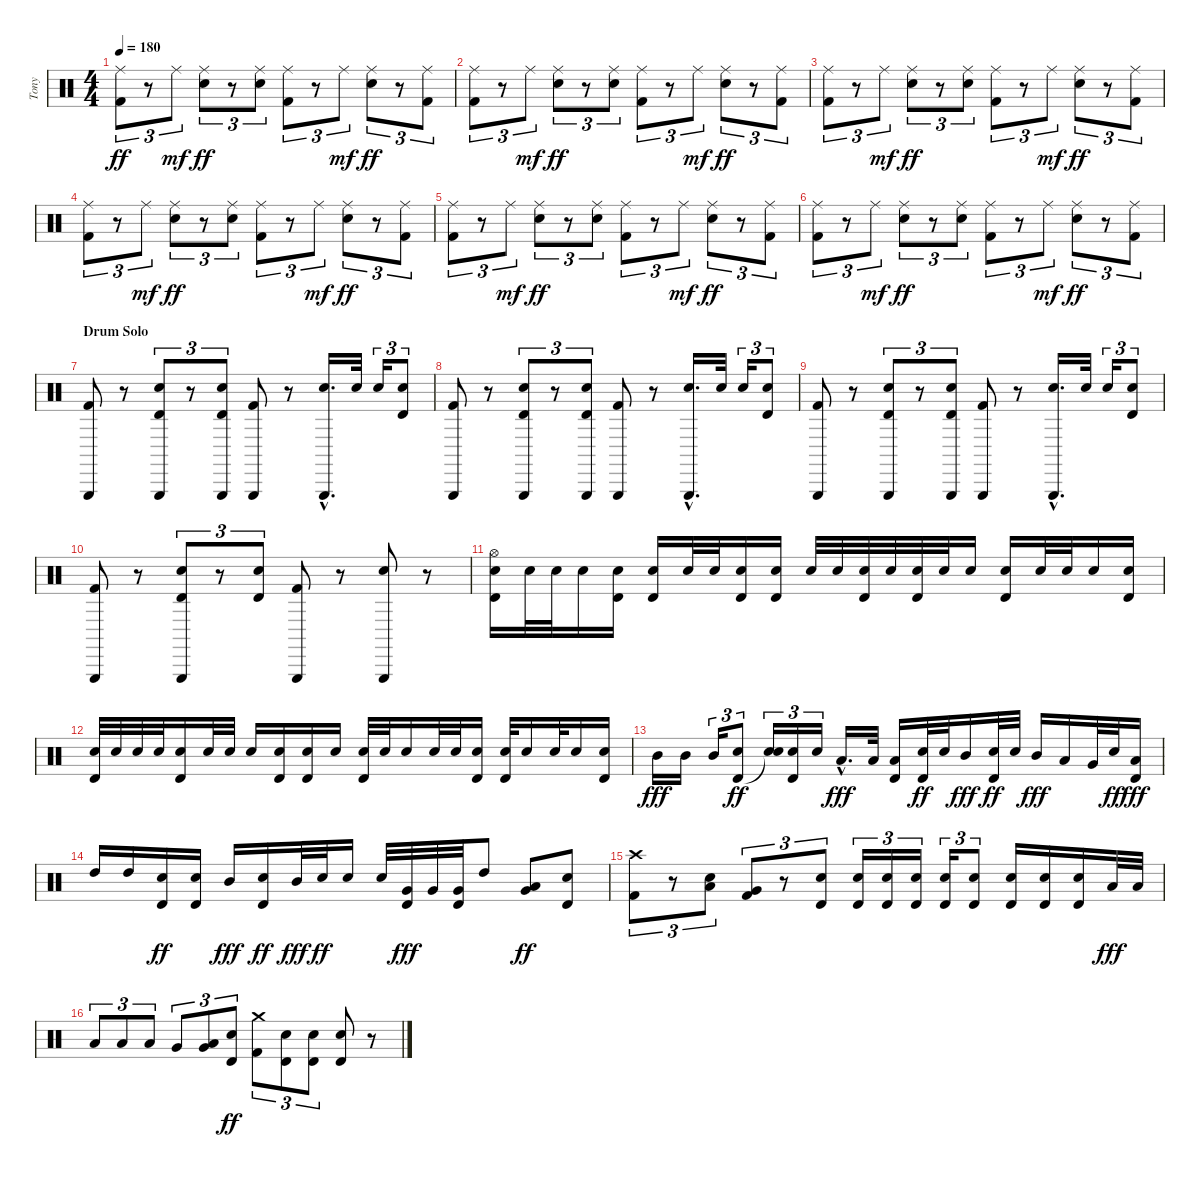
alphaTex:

\track ("Tony" "Tony") {instrument percussion}
\staff {score}
\articulation defaults
\ts (4 4)
\tempo 180
\clef neutral
\ks c
("Ride (middle)" "Kick (hit) 2").8{tu (3 2) dy ff} r.8{tu (3 2)} "Ride (middle)".8{tu (3 2) dy mf} ("Ride (middle)" "Electric Snare (hit)").8{tu (3 2) dy ff} r.8{tu (3 2)} ("Ride (middle)" "Electric Snare (hit)").8{tu (3 2)} ("Ride (middle)" "Kick (hit) 2").8{tu (3 2)} r.8{tu (3 2)} "Ride (middle)".8{tu (3 2) dy mf} ("Ride (middle)" "Electric Snare (hit)").8{tu (3 2) dy ff} r.8{tu (3 2)} ("Ride (middle)" "Kick (hit) 2").8{tu (3 2)} |
("Ride (middle)" "Kick (hit) 2").8{tu (3 2)} r.8{tu (3 2)} "Ride (middle)".8{tu (3 2) dy mf} ("Ride (middle)" "Electric Snare (hit)").8{tu (3 2) dy ff} r.8{tu (3 2)} ("Ride (middle)" "Electric Snare (hit)").8{tu (3 2)} ("Ride (middle)" "Kick (hit) 2").8{tu (3 2)} r.8{tu (3 2)} "Ride (middle)".8{tu (3 2) dy mf} ("Ride (middle)" "Electric Snare (hit)").8{tu (3 2) dy ff} r.8{tu (3 2)} ("Ride (middle)" "Kick (hit) 2").8{tu (3 2)} |
("Ride (middle)" "Kick (hit) 2").8{tu (3 2)} r.8{tu (3 2)} "Ride (middle)".8{tu (3 2) dy mf} ("Ride (middle)" "Electric Snare (hit)").8{tu (3 2) dy ff} r.8{tu (3 2)} ("Ride (middle)" "Electric Snare (hit)").8{tu (3 2)} ("Ride (middle)" "Kick (hit) 2").8{tu (3 2)} r.8{tu (3 2)} "Ride (middle)".8{tu (3 2) dy mf} ("Ride (middle)" "Electric Snare (hit)").8{tu (3 2) dy ff} r.8{tu (3 2)} ("Ride (middle)" "Kick (hit) 2").8{tu (3 2)} |
("Ride (middle)" "Kick (hit) 2").8{tu (3 2)} r.8{tu (3 2)} "Ride (middle)".8{tu (3 2) dy mf} ("Ride (middle)" "Electric Snare (hit)").8{tu (3 2) dy ff} r.8{tu (3 2)} ("Ride (middle)" "Electric Snare (hit)").8{tu (3 2)} ("Ride (middle)" "Kick (hit) 2").8{tu (3 2)} r.8{tu (3 2)} "Ride (middle)".8{tu (3 2) dy mf} ("Ride (middle)" "Electric Snare (hit)").8{tu (3 2) dy ff} r.8{tu (3 2)} ("Ride (middle)" "Kick (hit) 2").8{tu (3 2)} |
("Ride (middle)" "Kick (hit) 2").8{tu (3 2)} r.8{tu (3 2)} "Ride (middle)".8{tu (3 2) dy mf} ("Ride (middle)" "Electric Snare (hit)").8{tu (3 2) dy ff} r.8{tu (3 2)} ("Ride (middle)" "Electric Snare (hit)").8{tu (3 2)} ("Ride (middle)" "Kick (hit) 2").8{tu (3 2)} r.8{tu (3 2)} "Ride (middle)".8{tu (3 2) dy mf} ("Ride (middle)" "Electric Snare (hit)").8{tu (3 2) dy ff} r.8{tu (3 2)} ("Ride (middle)" "Kick (hit) 2").8{tu (3 2)} |
("Ride (middle)" "Kick (hit) 2").8{tu (3 2)} r.8{tu (3 2)} "Ride (middle)".8{tu (3 2) dy mf} ("Ride (middle)" "Electric Snare (hit)").8{tu (3 2) dy ff} r.8{tu (3 2)} ("Ride (middle)" "Electric Snare (hit)").8{tu (3 2)} ("Ride (middle)" "Kick (hit) 2").8{tu (3 2)} r.8{tu (3 2)} "Ride (middle)".8{tu (3 2) dy mf} ("Ride (middle)" "Electric Snare (hit)").8{tu (3 2) dy ff} r.8{tu (3 2)} ("Ride (middle)" "Kick (hit) 2").8{tu (3 2)} |
\section ("" "Drum Solo")
("Triangle (hit)" "Kick (hit) 2").8 r.8 ("Triangle (hit)" "Timbale high (hit)" "Electric Snare (hit)").8{tu (3 2)} r.8{tu (3 2)} ("Triangle (hit)" "Timbale high (hit)" "Electric Snare (hit)").8{tu (3 2)} ("Triangle (hit)" "Kick (hit) 2").8 r.8 ("Triangle (hit)"{hac} "Electric Snare (hit)"{hac}).16{d} "Electric Snare (hit)".32 "Electric Snare (hit)".16{tu (3 2)} ("Timbale high (hit)" "Electric Snare (hit)").8{tu (3 2)} |
("Triangle (hit)" "Kick (hit) 2").8 r.8 ("Triangle (hit)" "Timbale high (hit)" "Electric Snare (hit)").8{tu (3 2)} r.8{tu (3 2)} ("Triangle (hit)" "Timbale high (hit)" "Electric Snare (hit)").8{tu (3 2)} ("Triangle (hit)" "Kick (hit) 2").8 r.8 ("Triangle (hit)"{hac} "Electric Snare (hit)"{hac}).16{d} "Electric Snare (hit)".32 "Electric Snare (hit)".16{tu (3 2)} ("Timbale high (hit)" "Electric Snare (hit)").8{tu (3 2)} |
("Triangle (hit)" "Kick (hit) 2").8 r.8 ("Triangle (hit)" "Timbale high (hit)" "Electric Snare (hit)").8{tu (3 2)} r.8{tu (3 2)} ("Triangle (hit)" "Timbale high (hit)" "Electric Snare (hit)").8{tu (3 2)} ("Triangle (hit)" "Kick (hit) 2").8 r.8 ("Triangle (hit)"{hac} "Electric Snare (hit)"{hac}).16{d} "Electric Snare (hit)".32 "Electric Snare (hit)".16{tu (3 2)} ("Timbale high (hit)" "Electric Snare (hit)").8{tu (3 2)} |
("Triangle (hit)" "Kick (hit) 2").8 r.8 ("Triangle (hit)" "Timbale high (hit)" "Electric Snare (hit)").8{tu (3 2)} r.8{tu (3 2)} ("Timbale high (hit)" "Electric Snare (hit)").8{tu (3 2)} ("Triangle (hit)" "Kick (hit) 2").8 r.8 ("Triangle (hit)" "Electric Snare (hit)").8 r.8 |
("Timbale high (hit)" "Hi-Hat (open)" "Electric Snare (hit)").16 "Electric Snare (hit)".32 "Electric Snare (hit)".32 "Electric Snare (hit)".16 ("Timbale high (hit)" "Electric Snare (hit)").16 ("Timbale high (hit)" "Electric Snare (hit)").16 "Electric Snare (hit)".32 "Electric Snare (hit)".32 ("Timbale high (hit)" "Electric Snare (hit)").16 ("Timbale high (hit)" "Electric Snare (hit)").16 "Electric Snare (hit)".32 "Electric Snare (hit)".32 ("Timbale high (hit)" "Electric Snare (hit)").32 "Electric Snare (hit)".32 ("Timbale high (hit)" "Electric Snare (hit)").32 "Electric Snare (hit)".32 "Electric Snare (hit)".16 ("Timbale high (hit)" "Electric Snare (hit)").16 "Electric Snare (hit)".32 "Electric Snare (hit)".32 "Electric Snare (hit)".16 ("Timbale high (hit)" "Electric Snare (hit)").16 |
("Timbale high (hit)" "Electric Snare (hit)").32 "Electric Snare (hit)".32 "Electric Snare (hit)".32 "Electric Snare (hit)".32 ("Timbale high (hit)" "Electric Snare (hit)").16 "Electric Snare (hit)".32 "Electric Snare (hit)".32 "Electric Snare (hit)".16 ("Timbale high (hit)" "Electric Snare (hit)").16 ("Timbale high (hit)" "Electric Snare (hit)").16 "Electric Snare (hit)".16 ("Timbale high (hit)" "Electric Snare (hit)").32 "Electric Snare (hit)".32 "Electric Snare (hit)".16 "Electric Snare (hit)".32 "Electric Snare (hit)".32 ("Timbale high (hit)" "Electric Snare (hit)").16 ("Timbale high (hit)" "Electric Snare (hit)").32 "Electric Snare (hit)".16 "Electric Snare (hit)".32 "Electric Snare (hit)".16 ("Timbale high (hit)" "Electric Snare (hit)").16 |
"Mid Tom (hit)".16{dy fff} "Mid Tom (hit)".16 "Mid Tom (hit)".16{tu (3 2)} ("Timbale high (hit)" "Electric Snare (hit)").8{tu (3 2) dy ff} ("Snare (hit)"{t} "Electric Snare (hit)").16{tu (3 2)} ("Timbale high (hit)" "Electric Snare (hit)").16{tu (3 2)} "Electric Snare (hit)".16{tu (3 2)} "Low Tom (hit)"{hac}.16{d dy fff} "Low Tom (hit)".32 ("Timbale high (hit)" "Low Tom (hit)").16 ("Timbale high (hit)" "Electric Snare (hit)").32{dy ff} "Electric Snare (hit)".32 "Mid Tom (hit)".16{dy fff} ("Timbale high (hit)" "Electric Snare (hit)").32{dy ff} "Electric Snare (hit)".32 "Mid Tom (hit)".16{dy fff} "Low Tom (hit)".16 "Very Low Tom (hit)".32 "Electric Snare (hit)".32{dy ff} ("Timbale high (hit)" "Low Tom (hit)").16{dy fff} |
"High Tom (hit)".16 "High Tom (hit)".16 ("Timbale high (hit)" "Electric Snare (hit)").16{dy ff} ("Timbale high (hit)" "Electric Snare (hit)").16 "Mid Tom (hit)".16{dy fff} ("Timbale high (hit)" "Electric Snare (hit)").16{dy ff} "Mid Tom (hit)".32{dy fff} "Electric Snare (hit)".32{dy ff} "Electric Snare (hit)".16 "Electric Snare (hit)".32 ("Timbale high (hit)" "Very Low Tom (hit)").32{dy fff} "Very Low Tom (hit)".32 ("Timbale high (hit)" "Very Low Tom (hit)").32 "High Tom (hit)".8 ("Low Tom (hit)" "Very Low Tom (hit)").8{dy ff} ("Timbale high (hit)" "Electric Snare (hit)").8 |
("Crash high (hit)" "Kick (hit) 2").8{tu (3 2)} r.8{tu (3 2)} ("Low Tom (hit)" "Electric Snare (hit)").8{tu (3 2)} ("Very Low Tom (hit)" "Kick (hit) 2").8{tu (3 2)} r.8{tu (3 2)} ("Timbale high (hit)" "Electric Snare (hit)").8{tu (3 2)} ("Timbale high (hit)" "Electric Snare (hit)").16{tu (3 2)} ("Timbale high (hit)" "Electric Snare (hit)").16{tu (3 2)} ("Timbale high (hit)" "Electric Snare (hit)").16{tu (3 2)} ("Timbale high (hit)" "Electric Snare (hit)").16{tu (3 2)} ("Timbale high (hit)" "Electric Snare (hit)").8{tu (3 2)} ("Timbale high (hit)" "Electric Snare (hit)").16 ("Timbale high (hit)" "Electric Snare (hit)").16 ("Timbale high (hit)" "Electric Snare (hit)").16 "Low Tom (hit)".32{dy fff} "Low Tom (hit)".32 |
"Low Tom (hit)".8{tu (3 2)} "Low Tom (hit)".8{tu (3 2)} "Low Tom (hit)".8{tu (3 2)} "Very Low Tom (hit)".8{tu (3 2)} ("Low Tom (hit)" "Very Low Tom (hit)").8{tu (3 2)} ("Timbale high (hit)" "Electric Snare (hit)").8{tu (3 2) dy ff} ("Crash medium (hit)" "Kick (hit) 2").8{tu (3 2)} ("Timbale high (hit)" "Electric Snare (hit)").8{tu (3 2)} ("Timbale high (hit)" "Electric Snare (hit)").8{tu (3 2)} ("Timbale high (hit)" "Electric Snare (hit)").8 r.8
